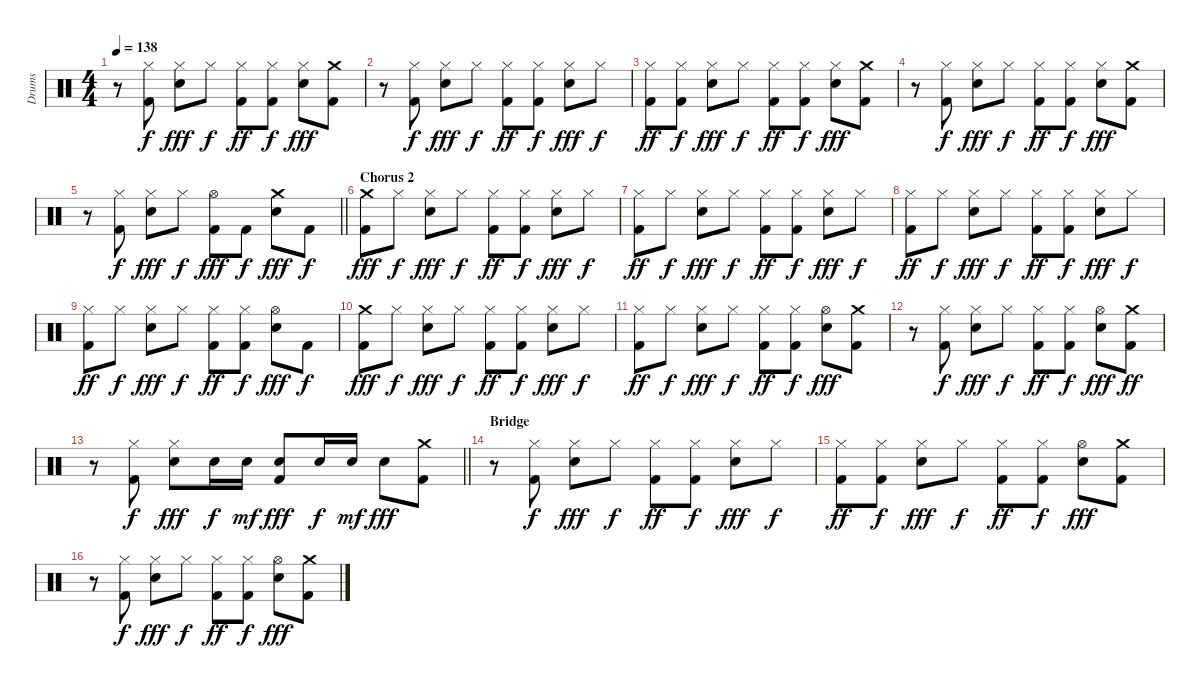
\track ("Drums" "Drums") {instrument percussion}
\staff {score}
\articulation defaults
\ts (4 4)
\tempo 138
\clef neutral
\ks c
r.8{dy fff} ("Kick (hit) 2" "Hi-Hat (closed)").8{dy f} ("Snare (hit) 2" "Hi-Hat (closed)").8{dy fff} "Hi-Hat (closed)".8{dy f} ("Kick (hit) 2" "Hi-Hat (closed)").8{dy ff} ("Kick (hit) 2" "Hi-Hat (closed)").8{dy f} ("Snare (hit) 2" "Hi-Hat (closed)").8{dy fff} ("Kick (hit) 2" "Crash medium (hit)").8 |
r.8 ("Kick (hit) 2" "Hi-Hat (closed)").8{dy f} ("Snare (hit) 2" "Hi-Hat (closed)").8{dy fff} "Hi-Hat (closed)".8{dy f} ("Kick (hit) 2" "Hi-Hat (closed)").8{dy ff} ("Kick (hit) 2" "Hi-Hat (closed)").8{dy f} ("Snare (hit) 2" "Hi-Hat (closed)").8{dy fff} "Hi-Hat (closed)".8{dy f} |
("Kick (hit) 2" "Hi-Hat (closed)").8{dy ff} ("Kick (hit) 2" "Hi-Hat (closed)").8{dy f} ("Snare (hit) 2" "Hi-Hat (closed)").8{dy fff} "Hi-Hat (closed)".8{dy f} ("Kick (hit) 2" "Hi-Hat (closed)").8{dy ff} ("Kick (hit) 2" "Hi-Hat (closed)").8{dy f} ("Snare (hit) 2" "Hi-Hat (closed)").8{dy fff} ("Kick (hit) 2" "Crash medium (hit)").8 |
r.8 ("Kick (hit) 2" "Hi-Hat (closed)").8{dy f} ("Snare (hit) 2" "Hi-Hat (closed)").8{dy fff} "Hi-Hat (closed)".8{dy f} ("Kick (hit) 2" "Hi-Hat (closed)").8{dy ff} ("Kick (hit) 2" "Hi-Hat (closed)").8{dy f} ("Snare (hit) 2" "Hi-Hat (closed)").8{dy fff} ("Kick (hit) 2" "Crash medium (hit)").8 |
\barLineRight lightlight
r.8 ("Kick (hit) 2" "Hi-Hat (closed)").8{dy f} ("Snare (hit) 2" "Hi-Hat (closed)").8{dy fff} "Hi-Hat (closed)".8{dy f} ("Kick (hit) 2" "Hi-Hat (open)").8{dy fff} "Kick (hit) 2".8{dy f} ("Crash medium (hit)" "Snare (hit) 2").8{dy fff} "Kick (hit) 2".8{dy f} |
\section ("" "Chorus 2")
("Kick (hit) 2" "Crash medium (hit)").8{dy fff} "Hi-Hat (closed)".8{dy f} ("Snare (hit) 2" "Hi-Hat (closed)").8{dy fff} "Hi-Hat (closed)".8{dy f} ("Kick (hit) 2" "Hi-Hat (closed)").8{dy ff} ("Kick (hit) 2" "Hi-Hat (closed)").8{dy f} ("Snare (hit) 2" "Hi-Hat (closed)").8{dy fff} "Hi-Hat (closed)".8{dy f} |
("Kick (hit) 2" "Hi-Hat (closed)").8{dy ff} "Hi-Hat (closed)".8{dy f} ("Snare (hit) 2" "Hi-Hat (closed)").8{dy fff} "Hi-Hat (closed)".8{dy f} ("Kick (hit) 2" "Hi-Hat (closed)").8{dy ff} ("Kick (hit) 2" "Hi-Hat (closed)").8{dy f} ("Snare (hit) 2" "Hi-Hat (closed)").8{dy fff} "Hi-Hat (closed)".8{dy f} |
("Kick (hit) 2" "Hi-Hat (closed)").8{dy ff} "Hi-Hat (closed)".8{dy f} ("Snare (hit) 2" "Hi-Hat (closed)").8{dy fff} "Hi-Hat (closed)".8{dy f} ("Kick (hit) 2" "Hi-Hat (closed)").8{dy ff} ("Kick (hit) 2" "Hi-Hat (closed)").8{dy f} ("Snare (hit) 2" "Hi-Hat (closed)").8{dy fff} "Hi-Hat (closed)".8{dy f} |
("Kick (hit) 2" "Hi-Hat (closed)").8{dy ff} "Hi-Hat (closed)".8{dy f} ("Snare (hit) 2" "Hi-Hat (closed)").8{dy fff} "Hi-Hat (closed)".8{dy f} ("Kick (hit) 2" "Hi-Hat (closed)").8{dy ff} ("Kick (hit) 2" "Hi-Hat (closed)").8{dy f} ("Hi-Hat (open)" "Snare (hit) 2").8{dy fff} "Kick (hit) 2".8{dy f} |
("Kick (hit) 2" "Crash medium (hit)").8{dy fff} "Hi-Hat (closed)".8{dy f} ("Snare (hit) 2" "Hi-Hat (closed)").8{dy fff} "Hi-Hat (closed)".8{dy f} ("Kick (hit) 2" "Hi-Hat (closed)").8{dy ff} ("Kick (hit) 2" "Hi-Hat (closed)").8{dy f} ("Snare (hit) 2" "Hi-Hat (closed)").8{dy fff} "Hi-Hat (closed)".8{dy f} |
("Kick (hit) 2" "Hi-Hat (closed)").8{dy ff} "Hi-Hat (closed)".8{dy f} ("Snare (hit) 2" "Hi-Hat (closed)").8{dy fff} "Hi-Hat (closed)".8{dy f} ("Kick (hit) 2" "Hi-Hat (closed)").8{dy ff} ("Kick (hit) 2" "Hi-Hat (closed)").8{dy f} ("Hi-Hat (open)" "Snare (hit) 2").8{dy fff} ("Kick (hit) 2" "Crash medium (hit)").8 |
r.8 ("Kick (hit) 2" "Hi-Hat (closed)").8{dy f} ("Snare (hit) 2" "Hi-Hat (closed)").8{dy fff} "Hi-Hat (closed)".8{dy f} ("Kick (hit) 2" "Hi-Hat (closed)").8{dy ff} ("Kick (hit) 2" "Hi-Hat (closed)").8{dy f} ("Hi-Hat (open)" "Snare (hit) 2").8{dy fff} ("Crash medium (hit)" "Kick (hit) 2").8{dy ff} |
\barLineRight lightlight
r.8 ("Kick (hit) 2" "Hi-Hat (closed)").8{dy f} ("Snare (hit) 2" "Hi-Hat (closed)").8{dy fff} "Snare (hit) 2".16{dy f} "Snare (hit) 2".16{dy mf} ("Kick (hit) 2" "Snare (hit) 2").8{dy fff} "Snare (hit) 2".16{dy f} "Snare (hit) 2".16{dy mf} "Snare (hit) 2".8{dy fff} ("Kick (hit) 2" "Crash medium (hit)").8 |
\section ("" "Bridge")
r.8 ("Kick (hit) 2" "Hi-Hat (closed)").8{dy f} ("Snare (hit) 2" "Hi-Hat (closed)").8{dy fff} "Hi-Hat (closed)".8{dy f} ("Kick (hit) 2" "Hi-Hat (closed)").8{dy ff} ("Kick (hit) 2" "Hi-Hat (closed)").8{dy f} ("Snare (hit) 2" "Hi-Hat (closed)").8{dy fff} "Hi-Hat (closed)".8{dy f} |
("Kick (hit) 2" "Hi-Hat (closed)").8{dy ff} ("Kick (hit) 2" "Hi-Hat (closed)").8{dy f} ("Snare (hit) 2" "Hi-Hat (closed)").8{dy fff} "Hi-Hat (closed)".8{dy f} ("Kick (hit) 2" "Hi-Hat (closed)").8{dy ff} ("Kick (hit) 2" "Hi-Hat (closed)").8{dy f} ("Snare (hit) 2" "Hi-Hat (open)").8{dy fff} ("Kick (hit) 2" "Crash medium (hit)").8 |
r.8 ("Kick (hit) 2" "Hi-Hat (closed)").8{dy f} ("Snare (hit) 2" "Hi-Hat (closed)").8{dy fff} "Hi-Hat (closed)".8{dy f} ("Kick (hit) 2" "Hi-Hat (closed)").8{dy ff} ("Kick (hit) 2" "Hi-Hat (closed)").8{dy f} ("Snare (hit) 2" "Hi-Hat (open)").8{dy fff} ("Kick (hit) 2" "Crash medium (hit)").8
